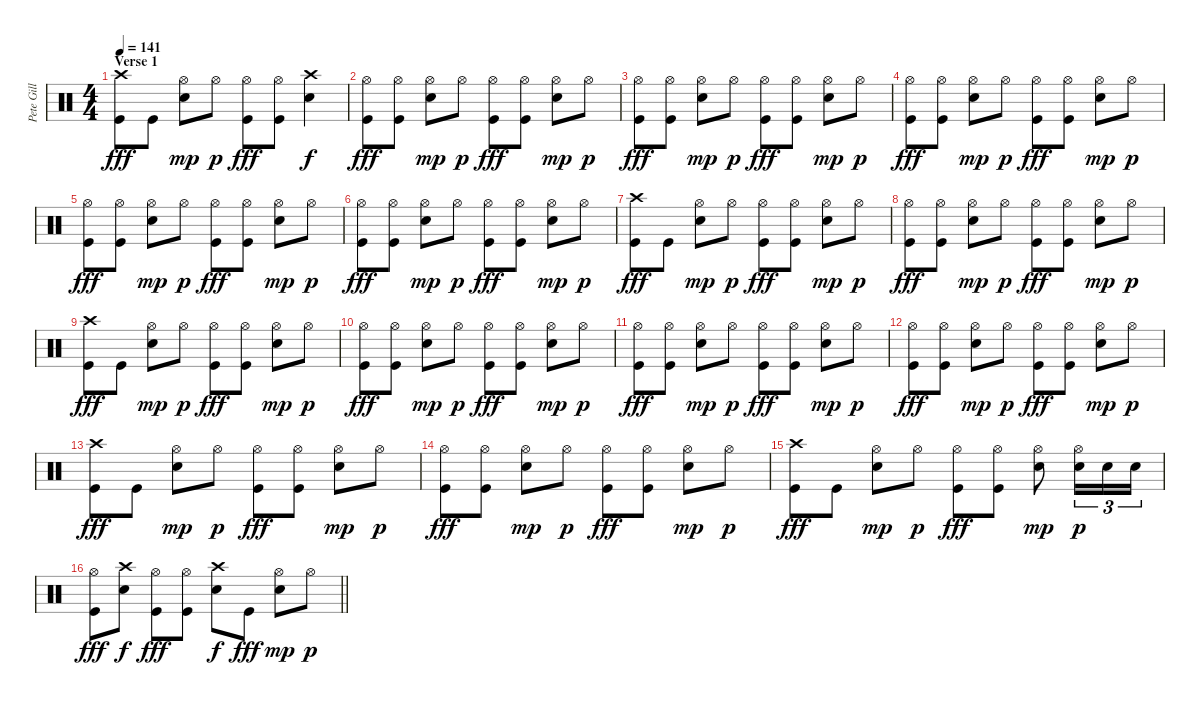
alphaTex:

\track ("Pete Gill" "Pete Gill") {instrument percussion}
\staff {score}
\articulation defaults
\ts (4 4)
\section ("" "Verse 1")
\tempo 141
\clef neutral
\ks c
("Crash high (hit)" "Kick (hit)").8{dy fff} "Kick (hit)".8 ("Hi-Hat (open)" "Electric Snare (hit)").8{dy mp} "Hi-Hat (open)".8{dy p} ("Hi-Hat (open)" "Kick (hit)").8{dy fff} ("Hi-Hat (open)" "Kick (hit)").8 ("Crash high (hit)" "Electric Snare (hit)").4{dy f} |
("Hi-Hat (open)" "Kick (hit)").8{dy fff} ("Hi-Hat (open)" "Kick (hit)").8 ("Hi-Hat (open)" "Electric Snare (hit)").8{dy mp} "Hi-Hat (open)".8{dy p} ("Hi-Hat (open)" "Kick (hit)").8{dy fff} ("Hi-Hat (open)" "Kick (hit)").8 ("Hi-Hat (open)" "Electric Snare (hit)").8{dy mp} "Hi-Hat (open)".8{dy p} |
("Hi-Hat (open)" "Kick (hit)").8{dy fff} ("Hi-Hat (open)" "Kick (hit)").8 ("Hi-Hat (open)" "Electric Snare (hit)").8{dy mp} "Hi-Hat (open)".8{dy p} ("Hi-Hat (open)" "Kick (hit)").8{dy fff} ("Hi-Hat (open)" "Kick (hit)").8 ("Hi-Hat (open)" "Electric Snare (hit)").8{dy mp} "Hi-Hat (open)".8{dy p} |
("Hi-Hat (open)" "Kick (hit)").8{dy fff} ("Hi-Hat (open)" "Kick (hit)").8 ("Hi-Hat (open)" "Electric Snare (hit)").8{dy mp} "Hi-Hat (open)".8{dy p} ("Hi-Hat (open)" "Kick (hit)").8{dy fff} ("Hi-Hat (open)" "Kick (hit)").8 ("Hi-Hat (open)" "Electric Snare (hit)").8{dy mp} "Hi-Hat (open)".8{dy p} |
("Hi-Hat (open)" "Kick (hit)").8{dy fff} ("Hi-Hat (open)" "Kick (hit)").8 ("Hi-Hat (open)" "Electric Snare (hit)").8{dy mp} "Hi-Hat (open)".8{dy p} ("Hi-Hat (open)" "Kick (hit)").8{dy fff} ("Hi-Hat (open)" "Kick (hit)").8 ("Hi-Hat (open)" "Electric Snare (hit)").8{dy mp} "Hi-Hat (open)".8{dy p} |
("Hi-Hat (open)" "Kick (hit)").8{dy fff} ("Hi-Hat (open)" "Kick (hit)").8 ("Hi-Hat (open)" "Electric Snare (hit)").8{dy mp} "Hi-Hat (open)".8{dy p} ("Hi-Hat (open)" "Kick (hit)").8{dy fff} ("Hi-Hat (open)" "Kick (hit)").8 ("Hi-Hat (open)" "Electric Snare (hit)").8{dy mp} "Hi-Hat (open)".8{dy p} |
("Crash high (hit)" "Kick (hit)").8{dy fff} "Kick (hit)".8 ("Hi-Hat (open)" "Electric Snare (hit)").8{dy mp} "Hi-Hat (open)".8{dy p} ("Hi-Hat (open)" "Kick (hit)").8{dy fff} ("Hi-Hat (open)" "Kick (hit)").8 ("Hi-Hat (open)" "Electric Snare (hit)").8{dy mp} "Hi-Hat (open)".8{dy p} |
("Hi-Hat (open)" "Kick (hit)").8{dy fff} ("Hi-Hat (open)" "Kick (hit)").8 ("Hi-Hat (open)" "Electric Snare (hit)").8{dy mp} "Hi-Hat (open)".8{dy p} ("Hi-Hat (open)" "Kick (hit)").8{dy fff} ("Hi-Hat (open)" "Kick (hit)").8 ("Hi-Hat (open)" "Electric Snare (hit)").8{dy mp} "Hi-Hat (open)".8{dy p} |
("Crash high (hit)" "Kick (hit)").8{dy fff} "Kick (hit)".8 ("Hi-Hat (open)" "Electric Snare (hit)").8{dy mp} "Hi-Hat (open)".8{dy p} ("Hi-Hat (open)" "Kick (hit)").8{dy fff} ("Hi-Hat (open)" "Kick (hit)").8 ("Hi-Hat (open)" "Electric Snare (hit)").8{dy mp} "Hi-Hat (open)".8{dy p} |
("Hi-Hat (open)" "Kick (hit)").8{dy fff} ("Hi-Hat (open)" "Kick (hit)").8 ("Hi-Hat (open)" "Electric Snare (hit)").8{dy mp} "Hi-Hat (open)".8{dy p} ("Hi-Hat (open)" "Kick (hit)").8{dy fff} ("Hi-Hat (open)" "Kick (hit)").8 ("Hi-Hat (open)" "Electric Snare (hit)").8{dy mp} "Hi-Hat (open)".8{dy p} |
("Hi-Hat (open)" "Kick (hit)").8{dy fff} ("Hi-Hat (open)" "Kick (hit)").8 ("Hi-Hat (open)" "Electric Snare (hit)").8{dy mp} "Hi-Hat (open)".8{dy p} ("Hi-Hat (open)" "Kick (hit)").8{dy fff} ("Hi-Hat (open)" "Kick (hit)").8 ("Hi-Hat (open)" "Electric Snare (hit)").8{dy mp} "Hi-Hat (open)".8{dy p} |
("Hi-Hat (open)" "Kick (hit)").8{dy fff} ("Hi-Hat (open)" "Kick (hit)").8 ("Hi-Hat (open)" "Electric Snare (hit)").8{dy mp} "Hi-Hat (open)".8{dy p} ("Hi-Hat (open)" "Kick (hit)").8{dy fff} ("Hi-Hat (open)" "Kick (hit)").8 ("Hi-Hat (open)" "Electric Snare (hit)").8{dy mp} "Hi-Hat (open)".8{dy p} |
("Crash high (hit)" "Kick (hit)").8{dy fff} "Kick (hit)".8 ("Hi-Hat (open)" "Electric Snare (hit)").8{dy mp} "Hi-Hat (open)".8{dy p} ("Hi-Hat (open)" "Kick (hit)").8{dy fff} ("Hi-Hat (open)" "Kick (hit)").8 ("Hi-Hat (open)" "Electric Snare (hit)").8{dy mp} "Hi-Hat (open)".8{dy p} |
("Hi-Hat (open)" "Kick (hit)").8{dy fff} ("Hi-Hat (open)" "Kick (hit)").8 ("Hi-Hat (open)" "Electric Snare (hit)").8{dy mp} "Hi-Hat (open)".8{dy p} ("Hi-Hat (open)" "Kick (hit)").8{dy fff} ("Hi-Hat (open)" "Kick (hit)").8 ("Hi-Hat (open)" "Electric Snare (hit)").8{dy mp} "Hi-Hat (open)".8{dy p} |
("Crash high (hit)" "Kick (hit)").8{dy fff} "Kick (hit)".8 ("Hi-Hat (open)" "Electric Snare (hit)").8{dy mp} "Hi-Hat (open)".8{dy p} ("Hi-Hat (open)" "Kick (hit)").8{dy fff} ("Hi-Hat (open)" "Kick (hit)").8 ("Hi-Hat (open)" "Electric Snare (hit)").8{dy mp} ("Hi-Hat (open)" "Electric Snare (hit)").16{tu (3 2) dy p} "Electric Snare (hit)".16{tu (3 2)} "Electric Snare (hit)".16{tu (3 2)} |
\barLineRight lightlight
("Hi-Hat (open)" "Kick (hit)").8{dy fff} ("Crash high (hit)" "Electric Snare (hit)").8{dy f} ("Hi-Hat (open)" "Kick (hit)").8{dy fff} ("Hi-Hat (open)" "Kick (hit)").8 ("Crash high (hit)" "Electric Snare (hit)").8{dy f} "Kick (hit)".8{dy fff} ("Hi-Hat (open)" "Electric Snare (hit)").8{dy mp} "Hi-Hat (open)".8{dy p}
